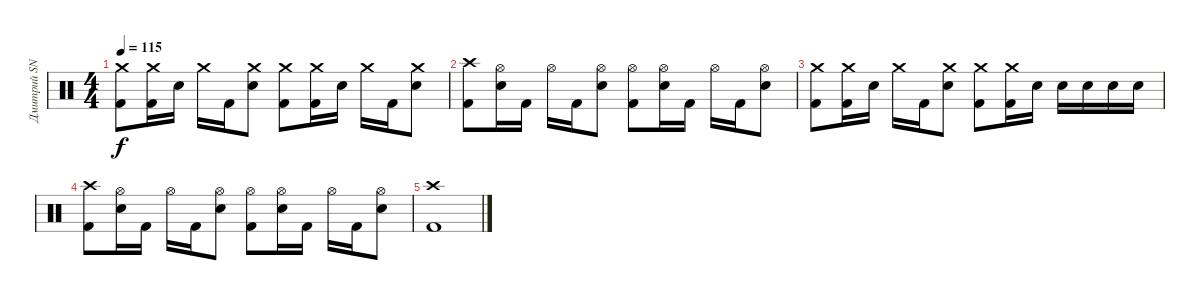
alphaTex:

\track ("Дмитрий SNAKE Хакимов" "Дмитрий SN") {instrument percussion}
\staff {score}
\articulation defaults
\ts (4 4)
\tempo 115
\clef neutral
\ks c
("Crash medium (hit)" "Kick (hit) 2").8{dy f} ("Crash medium (hit)" "Kick (hit) 2").16 "Snare (hit) 2".16 "Crash medium (hit)".16 "Kick (hit) 2".16 ("Crash medium (hit)" "Snare (hit) 2").8 ("Crash medium (hit)" "Kick (hit) 2").8 ("Crash medium (hit)" "Kick (hit) 2").16 "Snare (hit) 2".16 "Crash medium (hit)".16 "Kick (hit) 2".16 ("Crash medium (hit)" "Snare (hit) 2").8 |
("Crash high (hit)" "Kick (hit) 2").8 ("Hi-Hat (open)" "Snare (hit) 2").16 "Kick (hit) 2".16 "Hi-Hat (open)".16 "Kick (hit) 2".16 ("Hi-Hat (open)" "Snare (hit) 2").8 ("Hi-Hat (open)" "Kick (hit) 2").8 ("Hi-Hat (open)" "Snare (hit) 2").16 "Kick (hit) 2".16 "Hi-Hat (open)".16 "Kick (hit) 2".16 ("Hi-Hat (open)" "Snare (hit) 2").8 |
("Crash medium (hit)" "Kick (hit) 2").8 ("Crash medium (hit)" "Kick (hit) 2").16 "Snare (hit) 2".16 "Crash medium (hit)".16 "Kick (hit) 2".16 ("Crash medium (hit)" "Snare (hit) 2").8 ("Crash medium (hit)" "Kick (hit) 2").8 ("Crash medium (hit)" "Kick (hit) 2").16 "Snare (hit) 2".16 "Snare (hit) 2".16 "Snare (hit) 2".16 "Snare (hit) 2".16 "Snare (hit) 2".16 |
("Crash high (hit)" "Kick (hit) 2").8 ("Hi-Hat (open)" "Snare (hit) 2").16 "Kick (hit) 2".16 "Hi-Hat (open)".16 "Kick (hit) 2".16 ("Hi-Hat (open)" "Snare (hit) 2").8 ("Hi-Hat (open)" "Kick (hit) 2").8 ("Hi-Hat (open)" "Snare (hit) 2").16 "Kick (hit) 2".16 "Hi-Hat (open)".16 "Kick (hit) 2".16 ("Hi-Hat (open)" "Snare (hit) 2").8 |
("Crash high (hit)" "Kick (hit) 2").1
